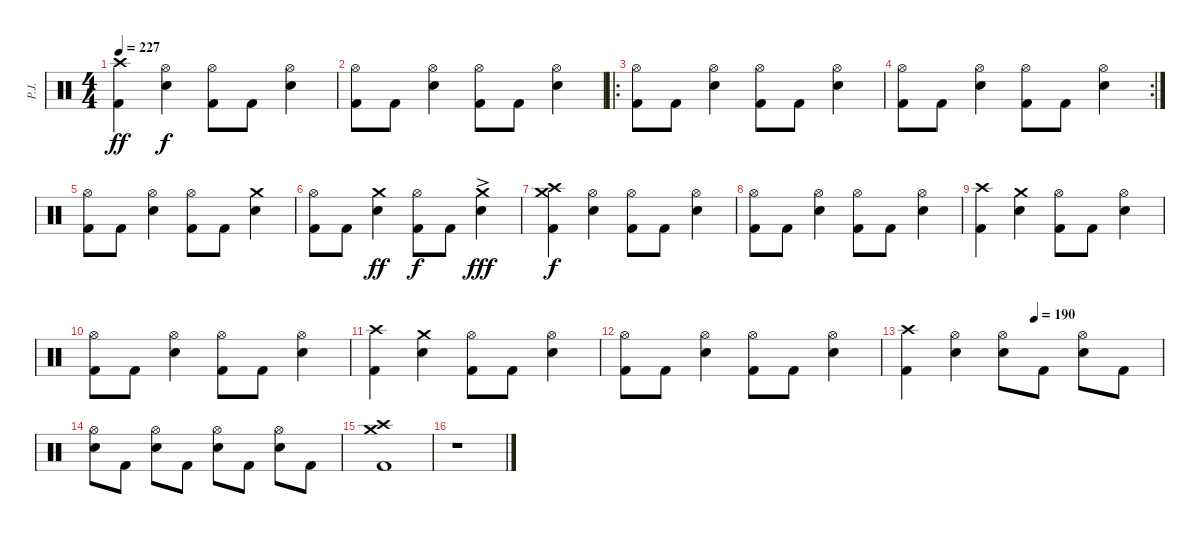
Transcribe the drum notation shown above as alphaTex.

\track ("P.J." "P.J.") {instrument percussion}
\staff {score}
\articulation defaults
\ts (4 4)
\tempo 227
\clef neutral
\ks c
("Crash high (hit)" "Kick (hit) 2").4{dy ff} ("Hi-Hat (open)" "Electric Snare (hit)").4{dy f} ("Hi-Hat (open)" "Kick (hit) 2").8 "Kick (hit) 2".8 ("Hi-Hat (open)" "Electric Snare (hit)").4 |
("Hi-Hat (open)" "Kick (hit) 2").8 "Kick (hit) 2".8 ("Hi-Hat (open)" "Electric Snare (hit)").4 ("Hi-Hat (open)" "Kick (hit) 2").8 "Kick (hit) 2".8 ("Hi-Hat (open)" "Electric Snare (hit)").4 |
\ro
("Hi-Hat (open)" "Kick (hit) 2").8 "Kick (hit) 2".8 ("Hi-Hat (open)" "Electric Snare (hit)").4 ("Hi-Hat (open)" "Kick (hit) 2").8 "Kick (hit) 2".8 ("Hi-Hat (open)" "Electric Snare (hit)").4 |
\rc 2
("Hi-Hat (open)" "Kick (hit) 2").8 "Kick (hit) 2".8 ("Hi-Hat (open)" "Electric Snare (hit)").4 ("Hi-Hat (open)" "Kick (hit) 2").8 "Kick (hit) 2".8 ("Hi-Hat (open)" "Electric Snare (hit)").4 |
("Hi-Hat (open)" "Kick (hit) 2").8 "Kick (hit) 2".8 ("Hi-Hat (open)" "Electric Snare (hit)").4 ("Hi-Hat (open)" "Kick (hit) 2").8 "Kick (hit) 2".8 ("Crash medium (hit)" "Electric Snare (hit)").4 |
("Hi-Hat (open)" "Kick (hit) 2").8 "Kick (hit) 2".8 ("Crash medium (hit)" "Electric Snare (hit)").4{dy ff} ("Hi-Hat (open)" "Kick (hit) 2").8{dy f} "Kick (hit) 2".8 ("Crash medium (hit)"{ac} "Electric Snare (hit)").4{dy fff} |
("Crash high (hit)" "Crash medium (hit)" "Kick (hit) 2").4{dy f} ("Hi-Hat (open)" "Electric Snare (hit)").4 ("Hi-Hat (open)" "Kick (hit) 2").8 "Kick (hit) 2".8 ("Hi-Hat (open)" "Electric Snare (hit)").4 |
("Hi-Hat (open)" "Kick (hit) 2").8 "Kick (hit) 2".8 ("Hi-Hat (open)" "Electric Snare (hit)").4 ("Hi-Hat (open)" "Kick (hit) 2").8 "Kick (hit) 2".8 ("Hi-Hat (open)" "Electric Snare (hit)").4 |
("Crash high (hit)" "Kick (hit) 2").4 ("Crash medium (hit)" "Electric Snare (hit)").4 ("Hi-Hat (open)" "Kick (hit) 2").8 "Kick (hit) 2".8 ("Hi-Hat (open)" "Electric Snare (hit)").4 |
("Hi-Hat (open)" "Kick (hit) 2").8 "Kick (hit) 2".8 ("Hi-Hat (open)" "Electric Snare (hit)").4 ("Hi-Hat (open)" "Kick (hit) 2").8 "Kick (hit) 2".8 ("Hi-Hat (open)" "Electric Snare (hit)").4 |
("Crash high (hit)" "Kick (hit) 2").4 ("Crash medium (hit)" "Electric Snare (hit)").4 ("Hi-Hat (open)" "Kick (hit) 2").8 "Kick (hit) 2".8 ("Hi-Hat (open)" "Electric Snare (hit)").4 |
("Hi-Hat (open)" "Kick (hit) 2").8 "Kick (hit) 2".8 ("Hi-Hat (open)" "Electric Snare (hit)").4 ("Hi-Hat (open)" "Kick (hit) 2").8 "Kick (hit) 2".8 ("Hi-Hat (open)" "Electric Snare (hit)").4 |
\tempo (190 0.5)
("Crash high (hit)" "Kick (hit) 2").4 ("Hi-Hat (open)" "Electric Snare (hit)").4 ("Hi-Hat (open)" "Electric Snare (hit)").8 "Kick (hit) 2".8 ("Hi-Hat (open)" "Electric Snare (hit)").8 "Kick (hit) 2".8 |
("Hi-Hat (open)" "Electric Snare (hit)").8 "Kick (hit) 2".8 ("Hi-Hat (open)" "Electric Snare (hit)").8 "Kick (hit) 2".8 ("Hi-Hat (open)" "Electric Snare (hit)").8 "Kick (hit) 2".8 ("Hi-Hat (open)" "Electric Snare (hit)").8 "Kick (hit) 2".8 |
("Crash high (hit)" "Crash medium (hit)" "Kick (hit) 2").1 |
r.1
